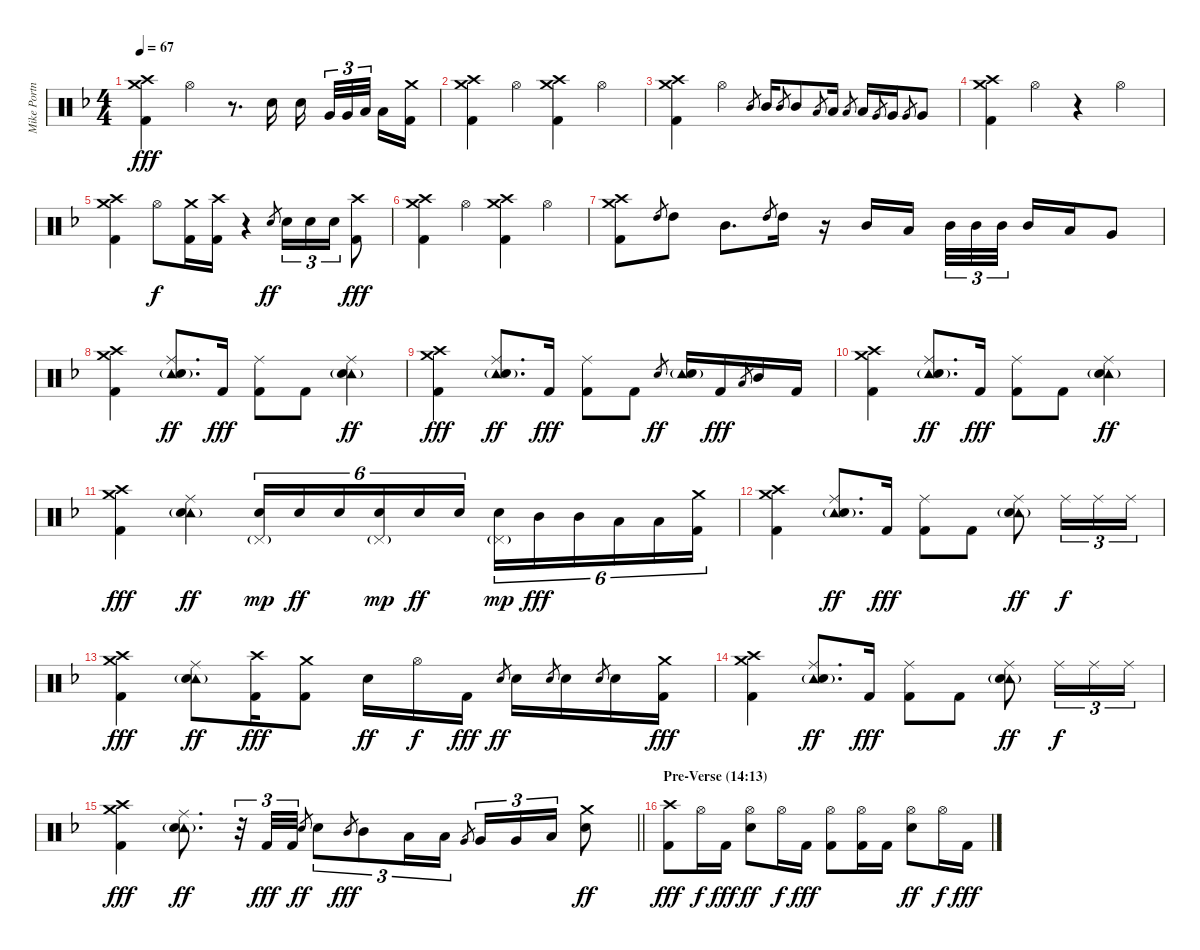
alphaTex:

\track ("Mike Portnoy Drums" "Mike Portn") {instrument percussion}
\staff {score}
\articulation defaults
\ts (4 4)
\tempo 67
\clef neutral
\ks dminor
("Crash high (hit)" "Crash medium (hit)" "Kick (hit) 2").4{dy fff} "Hi-Hat (open)".4 r.8{d} "Electric Snare (hit)".16 "Electric Snare (hit)".16{beam splitsecondary} "Very Low Tom (hit)".32{tu (3 2)} "Very Low Tom (hit)".32{tu (3 2)} "Low Floor Tom (hit)".32{tu (3 2) beam splitsecondary} "Low Floor Tom (hit)".16 ("Crash medium (hit)" "Kick (hit) 2").16 |
("Crash high (hit)" "Crash medium (hit)" "Kick (hit) 2").4 "Hi-Hat (open)".4 ("Crash high (hit)" "Crash medium (hit)" "Kick (hit) 2").4 "Hi-Hat (open)".4 |
("Crash high (hit)" "Crash medium (hit)" "Kick (hit) 2").4 "Hi-Hat (open)".4 "Mid Tom (hit)".8{gr} "Mid Tom (hit)".16 "Mid Tom (hit)".8{gr} "Mid Tom (hit)".8 "Low Tom (hit)".8{gr} "Low Tom (hit)".16 "Low Tom (hit)".8{gr} "Low Tom (hit)".16 "Very Low Tom (hit)".8{gr} "Very Low Tom (hit)".16 "Very Low Tom (hit)".8{gr} "Very Low Tom (hit)".8 |
("Crash high (hit)" "Crash medium (hit)" "Kick (hit) 2").4 "Hi-Hat (open)".4 r.4 "Hi-Hat (open)".4 |
("Crash high (hit)" "Crash medium (hit)" "Kick (hit) 2").4 "Hi-Hat (open)".8{dy f} ("Crash medium (hit)" "Kick (hit) 2").16 ("Crash high (hit)" "Kick (hit) 2").16 r.4 "Electric Snare (hit)".8{gr dy ff} "Electric Snare (hit)".16{tu (3 2)} "Electric Snare (hit)".16{tu (3 2)} "Electric Snare (hit)".16{tu (3 2)} ("Crash high (hit)" "Kick (hit) 2").8{dy fff} |
("Crash high (hit)" "Crash medium (hit)" "Kick (hit) 2").4 "Hi-Hat (open)".4 ("Crash high (hit)" "Crash medium (hit)" "Kick (hit) 2").4 "Hi-Hat (open)".4 |
("Crash high (hit)" "Crash medium (hit)" "Kick (hit) 2").8 "High Tom (hit)".8{gr} "High Tom (hit)".8 "Mid Tom (hit)".8{d} "High Tom (hit)".8{gr} "High Tom (hit)".16 r.16 "Mid Tom (hit)".16 "Low Tom (hit)".16{beam splitsecondary} "Mid Tom (hit)".32{tu (3 2)} "Mid Tom (hit)".32{tu (3 2)} "Mid Tom (hit)".32{tu (3 2)} "Mid Tom (hit)".16 "Low Tom (hit)".16 "Very Low Tom (hit)".8 |
("Crash high (hit)" "Crash medium (hit)" "Kick (hit) 2").4 ("Ride (middle)" "Tambourine (hit)"{g} "Electric Snare (hit)").8{d dy ff} "Kick (hit) 2".16{dy fff} ("Ride (middle)" "Kick (hit) 2").8 "Kick (hit) 2".8 ("Ride (middle)" "Tambourine (hit)"{g} "Electric Snare (hit)").4{dy ff} |
("Crash high (hit)" "Crash medium (hit)" "Kick (hit) 2").4{dy fff} ("Ride (middle)" "Tambourine (hit)"{g} "Electric Snare (hit)").8{d dy ff} "Kick (hit) 2".16{dy fff} ("Ride (middle)" "Kick (hit) 2").8 "Kick (hit) 2".8 "Electric Snare (hit)".8{gr dy ff} ("Tambourine (hit)"{g} "Electric Snare (hit)").16 "Kick (hit) 2".16{dy fff} "Low Tom (hit)".8{gr} "Mid Tom (hit)".16 "Kick (hit) 2".16 |
("Crash high (hit)" "Crash medium (hit)" "Kick (hit) 2").4 ("Ride (middle)" "Tambourine (hit)"{g} "Electric Snare (hit)").8{d dy ff} "Kick (hit) 2".16{dy fff} ("Ride (middle)" "Kick (hit) 2").8 "Kick (hit) 2".8 ("Ride (middle)" "Tambourine (hit)"{g} "Electric Snare (hit)").4{dy ff} |
("Crash high (hit)" "Crash medium (hit)" "Kick (hit) 2").4{dy fff} ("Ride (middle)" "Tambourine (hit)"{g} "Electric Snare (hit)").4{dy ff} ("Electric Snare (hit)" "Pedal Hi-Hat (hit)"{g}).16{tu (6 4) dy mp} "Electric Snare (hit)".16{tu (6 4) dy ff} "Electric Snare (hit)".16{tu (6 4)} ("Electric Snare (hit)" "Pedal Hi-Hat (hit)"{g}).16{tu (6 4) dy mp} "Electric Snare (hit)".16{tu (6 4) dy ff} "Electric Snare (hit)".16{tu (6 4)} ("Electric Snare (hit)" "Pedal Hi-Hat (hit)"{g}).16{tu (6 4) dy mp} "Mid Tom (hit)".16{tu (6 4) dy fff} "Mid Tom (hit)".16{tu (6 4)} "Low Tom (hit)".16{tu (6 4)} "Low Tom (hit)".16{tu (6 4)} ("Crash medium (hit)" "Kick (hit) 2").16{tu (6 4)} |
("Crash high (hit)" "Crash medium (hit)" "Kick (hit) 2").4 ("Ride (middle)" "Tambourine (hit)"{g} "Electric Snare (hit)").8{d dy ff} "Kick (hit) 2".16{dy fff} ("Ride (middle)" "Kick (hit) 2").8 "Kick (hit) 2".8 ("Ride (middle)" "Tambourine (hit)"{g} "Electric Snare (hit)").8{dy ff} "Ride (middle)".16{tu (3 2) dy f} "Ride (middle)".16{tu (3 2)} "Ride (middle)".16{tu (3 2)} |
("Crash high (hit)" "Crash medium (hit)" "Kick (hit) 2").4{dy fff} ("Ride (middle)" "Tambourine (hit)"{g} "Electric Snare (hit)").8{dy ff} ("Crash high (hit)" "Kick (hit) 2").16{dy fff} ("Crash medium (hit)" "Kick (hit) 2").8 "Electric Snare (hit)".16{dy ff} "Hi-Hat (open)".16{dy f} "Kick (hit) 2".16{dy fff} "Electric Snare (hit)".8{gr dy ff} "Electric Snare (hit)".16 "Electric Snare (hit)".8{gr} "Electric Snare (hit)".16 "Electric Snare (hit)".8{gr} "Electric Snare (hit)".16 ("Crash medium (hit)" "Kick (hit) 2").16{dy fff} |
("Crash high (hit)" "Crash medium (hit)" "Kick (hit) 2").4 ("Ride (middle)" "Tambourine (hit)"{g} "Electric Snare (hit)").8{d dy ff} "Kick (hit) 2".16{dy fff} ("Ride (middle)" "Kick (hit) 2").8 "Kick (hit) 2".8 ("Ride (middle)" "Tambourine (hit)"{g} "Electric Snare (hit)").8{dy ff} "Ride (middle)".16{tu (3 2) dy f} "Ride (middle)".16{tu (3 2)} "Ride (middle)".16{tu (3 2)} |
\barLineRight lightlight
("Crash high (hit)" "Crash medium (hit)" "Kick (hit) 2").4{dy fff} ("Ride (middle)" "Tambourine (hit)"{g} "Electric Snare (hit)").8{d dy ff} r.32{tu (3 2)} "Kick (hit) 2".32{tu (3 2) dy fff} "Kick (hit) 2".32{tu (3 2)} "Electric Snare (hit)".8{gr dy ff} "Electric Snare (hit)".8{tu (3 2)} "Mid Tom (hit)".8{gr dy fff} "Mid Tom (hit)".8{tu (3 2)} "Low Tom (hit)".16{tu (3 2)} "Low Tom (hit)".16{tu (3 2)} "Very Low Tom (hit)".8{gr} "Very Low Tom (hit)".16{tu (3 2)} "Very Low Tom (hit)".16{tu (3 2)} "Low Floor Tom (hit)".16{tu (3 2)} ("Crash medium (hit)" "Electric Snare (hit)").8{dy ff} |
\section ("" "Pre-Verse (14:13)")
("Crash high (hit)" "Kick (hit) 2").8{dy fff} "Hi-Hat (open)".16{dy f} "Kick (hit) 2".16{dy fff} ("Hi-Hat (open)" "Electric Snare (hit)").8{dy ff} "Hi-Hat (open)".16{dy f} "Kick (hit) 2".16{dy fff} ("Hi-Hat (open)" "Kick (hit) 2").8 ("Hi-Hat (open)" "Kick (hit) 2").16 "Kick (hit) 2".16 ("Hi-Hat (open)" "Electric Snare (hit)").8{dy ff} "Hi-Hat (open)".16{dy f} "Kick (hit) 2".16{dy fff}
